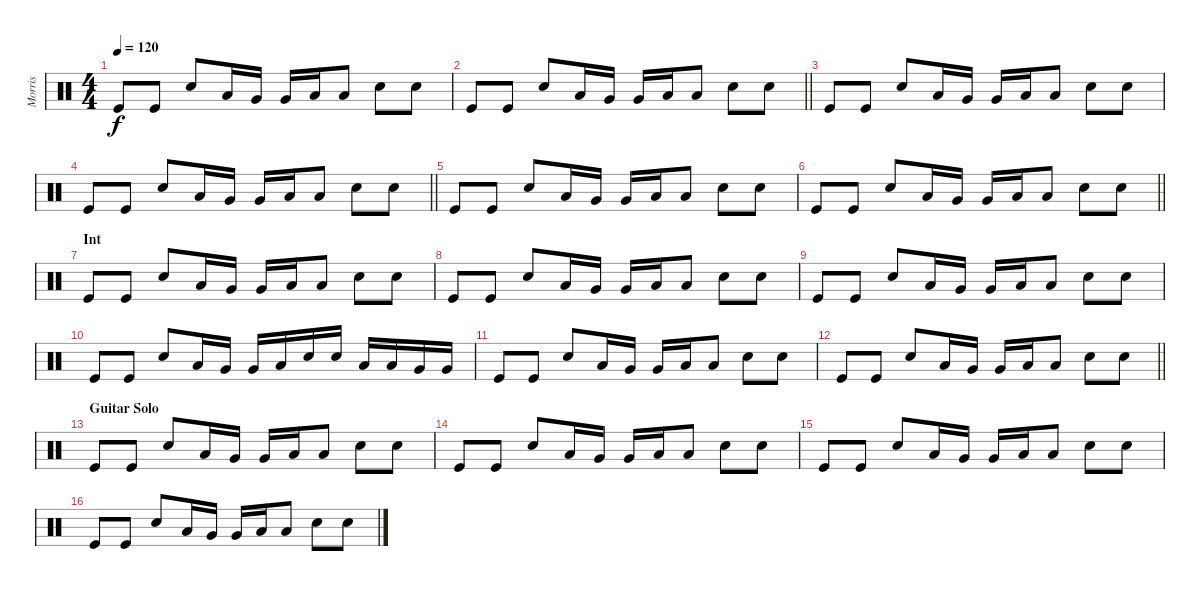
\track ("Morris" "Morris") {instrument percussion}
\staff {score}
\articulation defaults
\ts (4 4)
\tempo 120
\clef neutral
\ks c "Kick (hit)".8{dy f} "Kick (hit)".8 "Electric Snare (hit)".8 "Low Floor Tom (hit)".16 "Very Low Tom (hit)".16 "Very Low Tom (hit)".16 "Low Floor Tom (hit)".16 "Low Tom (hit)".8 "Electric Snare (hit)".8 "Electric Snare (hit)".8
|
\barLineRight lightlight "Kick (hit)".8 "Kick (hit)".8 "Electric Snare (hit)".8 "Low Floor Tom (hit)".16 "Very Low Tom (hit)".16 "Very Low Tom (hit)".16 "Low Floor Tom (hit)".16 "Low Tom (hit)".8 "Electric Snare (hit)".8 "Electric Snare (hit)".8
|
"Kick (hit)".8 "Kick (hit)".8 "Electric Snare (hit)".8 "Low Floor Tom (hit)".16 "Very Low Tom (hit)".16 "Very Low Tom (hit)".16 "Low Floor Tom (hit)".16 "Low Tom (hit)".8 "Electric Snare (hit)".8 "Electric Snare (hit)".8 |
\barLineRight lightlight "Kick (hit)".8 "Kick (hit)".8 "Electric Snare (hit)".8 "Low Floor Tom (hit)".16 "Very Low Tom (hit)".16 "Very Low Tom (hit)".16 "Low Floor Tom (hit)".16 "Low Tom (hit)".8 "Electric Snare (hit)".8 "Electric Snare (hit)".8
|
"Kick (hit)".8 "Kick (hit)".8 "Electric Snare (hit)".8 "Low Floor Tom (hit)".16 "Very Low Tom (hit)".16 "Very Low Tom (hit)".16 "Low Floor Tom (hit)".16 "Low Tom (hit)".8 "Electric Snare (hit)".8 "Electric Snare (hit)".8 |
\barLineRight lightlight "Kick (hit)".8 "Kick (hit)".8 "Electric Snare (hit)".8 "Low Floor Tom (hit)".16 "Very Low Tom (hit)".16 "Very Low Tom (hit)".16 "Low Floor Tom (hit)".16 "Low Tom (hit)".8 "Electric Snare (hit)".8 "Electric Snare (hit)".8
|
\section ("" "Int")
"Kick (hit)".8 "Kick (hit)".8 "Electric Snare (hit)".8 "Low Floor Tom (hit)".16 "Very Low Tom (hit)".16 "Very Low Tom (hit)".16 "Low Floor Tom (hit)".16 "Low Tom (hit)".8 "Electric Snare (hit)".8 "Electric Snare (hit)".8 |
"Kick (hit)".8 "Kick (hit)".8 "Electric Snare (hit)".8 "Low Floor Tom (hit)".16 "Very Low Tom (hit)".16 "Very Low Tom (hit)".16 "Low Floor Tom (hit)".16 "Low Tom (hit)".8 "Electric Snare (hit)".8 "Electric Snare (hit)".8 |
"Kick (hit)".8 "Kick (hit)".8 "Electric Snare (hit)".8 "Low Floor Tom (hit)".16 "Very Low Tom (hit)".16 "Very Low Tom (hit)".16 "Low Floor Tom (hit)".16 "Low Tom (hit)".8 "Electric Snare (hit)".8 "Electric Snare (hit)".8 |
"Kick (hit)".8 "Kick (hit)".8 "Electric Snare (hit)".8 "Low Floor Tom (hit)".16 "Very Low Tom (hit)".16 "Very Low Tom (hit)".16 "Low Floor Tom (hit)".16 "Electric Snare (hit)".16 "Electric Snare (hit)".16 "Low Tom (hit)".16 "Low Tom (hit)".16 "Very Low Tom (hit)".16 "Very Low Tom (hit)".16 |
"Kick (hit)".8 "Kick (hit)".8 "Electric Snare (hit)".8 "Low Floor Tom (hit)".16 "Very Low Tom (hit)".16 "Very Low Tom (hit)".16 "Low Floor Tom (hit)".16 "Low Tom (hit)".8 "Electric Snare (hit)".8 "Electric Snare (hit)".8 |
\barLineRight lightlight "Kick (hit)".8 "Kick (hit)".8 "Electric Snare (hit)".8 "Low Floor Tom (hit)".16 "Very Low Tom (hit)".16 "Very Low Tom (hit)".16 "Low Floor Tom (hit)".16 "Low Tom (hit)".8 "Electric Snare (hit)".8 "Electric Snare (hit)".8
|
\section ("" "Guitar Solo")
"Kick (hit)".8 "Kick (hit)".8 "Electric Snare (hit)".8 "Low Floor Tom (hit)".16 "Very Low Tom (hit)".16 "Very Low Tom (hit)".16 "Low Floor Tom (hit)".16 "Low Tom (hit)".8 "Electric Snare (hit)".8 "Electric Snare (hit)".8 |
"Kick (hit)".8 "Kick (hit)".8 "Electric Snare (hit)".8 "Low Floor Tom (hit)".16 "Very Low Tom (hit)".16 "Very Low Tom (hit)".16 "Low Floor Tom (hit)".16 "Low Tom (hit)".8 "Electric Snare (hit)".8 "Electric Snare (hit)".8 |
"Kick (hit)".8 "Kick (hit)".8 "Electric Snare (hit)".8 "Low Floor Tom (hit)".16 "Very Low Tom (hit)".16 "Very Low Tom (hit)".16 "Low Floor Tom (hit)".16 "Low Tom (hit)".8 "Electric Snare (hit)".8 "Electric Snare (hit)".8 |
"Kick (hit)".8 "Kick (hit)".8 "Electric Snare (hit)".8 "Low Floor Tom (hit)".16 "Very Low Tom (hit)".16 "Very Low Tom (hit)".16 "Low Floor Tom (hit)".16 "Low Tom (hit)".8 "Electric Snare (hit)".8 "Electric Snare (hit)".8
